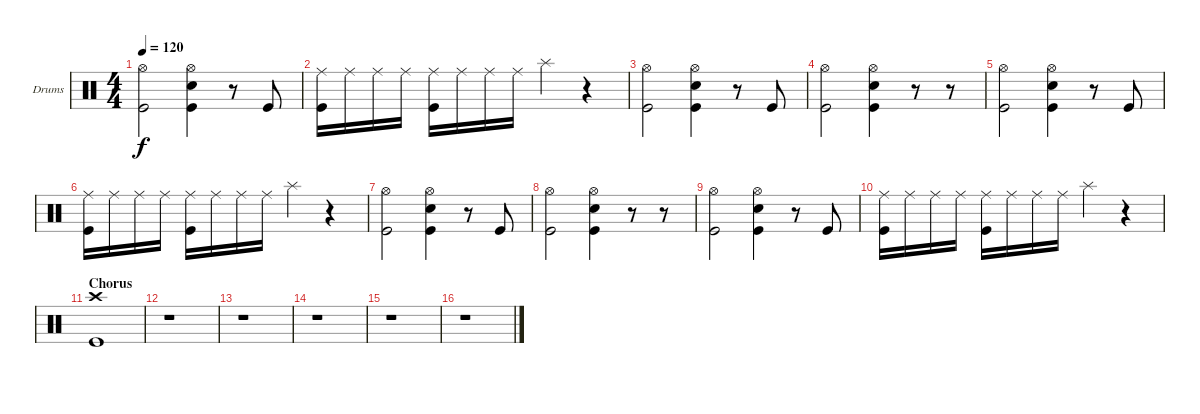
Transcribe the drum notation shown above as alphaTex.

\bracketExtendMode groupsimilarinstruments
\firstSystemTrackNameOrientation horizontal
\otherSystemsTrackNameOrientation horizontal
\track ("Drumkit" "Drums") {instrument percussion}
\staff {score}
\articulation defaults
\ts (4 4)
\tempo 120
\clef neutral
\ks c
("Hi-Hat (open)" "Kick (hit)").2{dy f} ("Hi-Hat (open)" "Snare (hit) 2" "Kick (hit)").4 r.8 "Kick (hit)".8 |
("Ride (middle)" "Kick (hit)").16 "Ride (middle)".16 "Ride (middle)".16 "Ride (middle)".16 ("Ride (middle)" "Kick (hit)").16 "Ride (middle)".16 "Ride (middle)".16 "Ride (middle)".16 "Splash (hit)".4 r.4 |
("Hi-Hat (open)" "Kick (hit)").2 ("Hi-Hat (open)" "Snare (hit) 2" "Kick (hit)").4 r.8 "Kick (hit)".8 |
("Hi-Hat (open)" "Kick (hit)").2 ("Hi-Hat (open)" "Snare (hit) 2" "Kick (hit)").4 r.8 r.8 |
("Hi-Hat (open)" "Kick (hit)").2 ("Hi-Hat (open)" "Snare (hit) 2" "Kick (hit)").4 r.8 "Kick (hit)".8 |
("Ride (middle)" "Kick (hit)").16 "Ride (middle)".16 "Ride (middle)".16 "Ride (middle)".16 ("Ride (middle)" "Kick (hit)").16 "Ride (middle)".16 "Ride (middle)".16 "Ride (middle)".16 "Splash (hit)".4 r.4 |
("Hi-Hat (open)" "Kick (hit)").2 ("Hi-Hat (open)" "Snare (hit) 2" "Kick (hit)").4 r.8 "Kick (hit)".8 |
("Hi-Hat (open)" "Kick (hit)").2 ("Hi-Hat (open)" "Snare (hit) 2" "Kick (hit)").4 r.8 r.8 |
("Hi-Hat (open)" "Kick (hit)").2 ("Hi-Hat (open)" "Snare (hit) 2" "Kick (hit)").4 r.8 "Kick (hit)".8 |
("Ride (middle)" "Kick (hit)").16 "Ride (middle)".16 "Ride (middle)".16 "Ride (middle)".16 ("Ride (middle)" "Kick (hit)").16 "Ride (middle)".16 "Ride (middle)".16 "Ride (middle)".16 "Splash (hit)".4 r.4 |
\section ("" "Chorus")
("Crash high (hit)" "Kick (hit)").1 |
r.1 |
r.1 |
r.1 |
r.1 |
r.1
